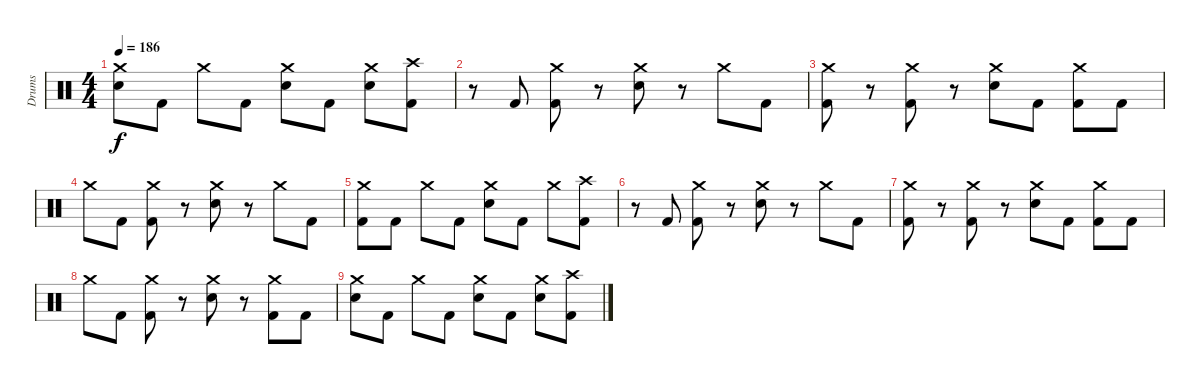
\track ("Drums" "Drums") {instrument percussion}
\staff
\articulation defaults
\ts (4 4)
\tempo 186
\clef neutral
\ks c
("Crash medium (hit)" "Electric Snare (hit)").8{dy f} "Kick (hit) 2".8 "Crash medium (hit)".8 "Kick (hit) 2".8 ("Crash medium (hit)" "Electric Snare (hit)").8 "Kick (hit) 2".8 ("Crash medium (hit)" "Electric Snare (hit)").8 ("Crash high (hit)" "Kick (hit) 2").8 |
r.8 "Kick (hit) 2".8 ("Crash medium (hit)" "Kick (hit) 2").8 r.8 ("Crash medium (hit)" "Electric Snare (hit)").8 r.8 "Crash medium (hit)".8 "Kick (hit) 2".8 |
("Crash medium (hit)" "Kick (hit) 2").8 r.8 ("Crash medium (hit)" "Kick (hit) 2").8 r.8 ("Crash medium (hit)" "Electric Snare (hit)").8 "Kick (hit) 2".8 ("Crash medium (hit)" "Kick (hit) 2").8 "Kick (hit) 2".8 |
"Crash medium (hit)".8 "Kick (hit) 2".8 ("Crash medium (hit)" "Kick (hit) 2").8 r.8 ("Crash medium (hit)" "Electric Snare (hit)").8 r.8 "Crash medium (hit)".8 "Kick (hit) 2".8 |
("Crash medium (hit)" "Kick (hit) 2").8 "Kick (hit) 2".8 "Crash medium (hit)".8 "Kick (hit) 2".8 ("Crash medium (hit)" "Electric Snare (hit)").8 "Kick (hit) 2".8 "Crash medium (hit)".8 ("Crash high (hit)" "Kick (hit) 2").8 |
r.8 "Kick (hit) 2".8 ("Crash medium (hit)" "Kick (hit) 2").8 r.8 ("Crash medium (hit)" "Electric Snare (hit)").8 r.8 "Crash medium (hit)".8 "Kick (hit) 2".8 |
("Crash medium (hit)" "Kick (hit) 2").8 r.8 ("Crash medium (hit)" "Kick (hit) 2").8 r.8 ("Crash medium (hit)" "Electric Snare (hit)").8 "Kick (hit) 2".8 ("Crash medium (hit)" "Kick (hit) 2").8 "Kick (hit) 2".8 |
"Crash medium (hit)".8 "Kick (hit) 2".8 ("Crash medium (hit)" "Kick (hit) 2").8 r.8 ("Crash medium (hit)" "Electric Snare (hit)").8 r.8 ("Crash medium (hit)" "Kick (hit) 2").8 "Kick (hit) 2".8 |
("Crash medium (hit)" "Electric Snare (hit)").8 "Kick (hit) 2".8 "Crash medium (hit)".8 "Kick (hit) 2".8 ("Crash medium (hit)" "Electric Snare (hit)").8 "Kick (hit) 2".8 ("Crash medium (hit)" "Electric Snare (hit)").8 ("Crash high (hit)" "Kick (hit) 2").8
